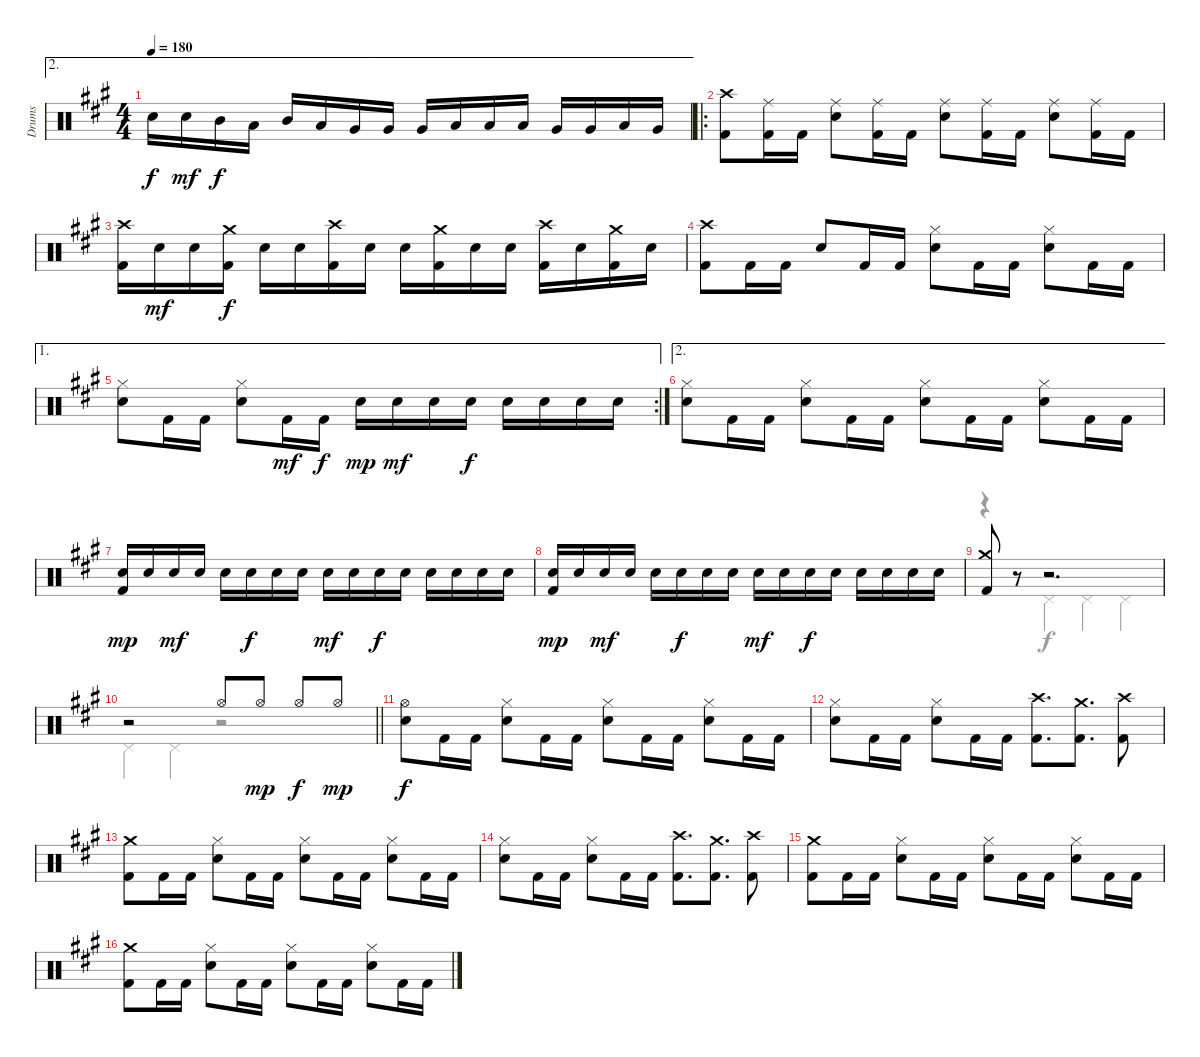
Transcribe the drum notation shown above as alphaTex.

\track ("Drums" "Drums") {instrument percussion}
\staff {score}
\articulation defaults
\voice
\ae 2
\ts (4 4)
\tempo 180
\clef neutral
\ks a "Snare (hit) 2".16{dy f} "Snare (hit) 2".16{dy mf} "Mid Tom (hit)".16{dy f} "Low Tom (hit)".16 "Mid Tom (hit)".16 "Low Tom (hit)".16 "Very Low Tom (hit)".16 "Very Low Tom (hit)".16 "Very Low Tom (hit)".16 "Low Tom (hit)".16 "Low Tom (hit)".16 "Low Tom (hit)".16 "Very Low Tom (hit)".16 "Very Low Tom (hit)".16 "Low Tom (hit)".16 "Very Low Tom (hit)".16
|
\ro
("Crash high (hit)" "Kick (hit) 2").8 ("Ride (middle)" "Kick (hit) 2").16 "Kick (hit) 2".16 ("Ride (middle)" "Snare (hit) 2").8 ("Ride (middle)" "Kick (hit) 2").16 "Kick (hit) 2".16 ("Ride (middle)" "Snare (hit) 2").8 ("Ride (middle)" "Kick (hit) 2").16 "Kick (hit) 2".16 ("Ride (middle)" "Snare (hit) 2").8 ("Ride (middle)" "Kick (hit) 2").16 "Kick (hit) 2".16 |
("Crash high (hit)" "Kick (hit) 2").16 "Snare (hit) 2".16{dy mf} "Snare (hit) 2".16 ("Crash medium (hit)" "Kick (hit) 2").16{dy f} "Snare (hit) 2".16 "Snare (hit) 2".16 ("Crash high (hit)" "Kick (hit) 2").16 "Snare (hit) 2".16 "Snare (hit) 2".16 ("Crash medium (hit)" "Kick (hit) 2").16 "Snare (hit) 2".16 "Snare (hit) 2".16 ("Crash high (hit)" "Kick (hit) 2").16 "Snare (hit) 2".16 ("Crash medium (hit)" "Kick (hit) 2").16 "Snare (hit) 2".16 |
("Crash high (hit)" "Kick (hit) 2").8 "Kick (hit) 2".16 "Kick (hit) 2".16 "Snare (hit) 2".8 "Kick (hit) 2".16 "Kick (hit) 2".16 ("Hi-Hat (closed)" "Snare (hit) 2").8 "Kick (hit) 2".16 "Kick (hit) 2".16 ("Hi-Hat (closed)" "Snare (hit) 2").8 "Kick (hit) 2".16 "Kick (hit) 2".16 |
\ae 1
\rc 2
("Hi-Hat (closed)" "Snare (hit) 2").8 "Kick (hit) 2".16 "Kick (hit) 2".16 ("Hi-Hat (closed)" "Snare (hit) 2").8 "Kick (hit) 2".16{dy mf} "Kick (hit) 2".16{dy f} "Snare (hit) 2".16{dy mp} "Snare (hit) 2".16{dy mf} "Snare (hit) 2".16 "Snare (hit) 2".16{dy f} "Snare (hit) 2".16 "Snare (hit) 2".16 "Snare (hit) 2".16 "Snare (hit) 2".16 |
\ae 2
("Hi-Hat (closed)" "Snare (hit) 2").8 "Kick (hit) 2".16 "Kick (hit) 2".16 ("Hi-Hat (closed)" "Snare (hit) 2").8 "Kick (hit) 2".16 "Kick (hit) 2".16 ("Hi-Hat (closed)" "Snare (hit) 2").8 "Kick (hit) 2".16 "Kick (hit) 2".16 ("Hi-Hat (closed)" "Snare (hit) 2").8 "Kick (hit) 2".16 "Kick (hit) 2".16 |
("Snare (hit) 2" "Kick (hit) 2").16{dy mp} "Snare (hit) 2".16 "Snare (hit) 2".16{dy mf} "Snare (hit) 2".16 "Snare (hit) 2".16 "Snare (hit) 2".16{dy f} "Snare (hit) 2".16 "Snare (hit) 2".16 "Snare (hit) 2".16{dy mf} "Snare (hit) 2".16 "Snare (hit) 2".16{dy f} "Snare (hit) 2".16 "Snare (hit) 2".16 "Snare (hit) 2".16 "Snare (hit) 2".16 "Snare (hit) 2".16 |
("Snare (hit) 2" "Kick (hit) 2").16{dy mp} "Snare (hit) 2".16 "Snare (hit) 2".16{dy mf} "Snare (hit) 2".16 "Snare (hit) 2".16 "Snare (hit) 2".16{dy f} "Snare (hit) 2".16 "Snare (hit) 2".16 "Snare (hit) 2".16{dy mf} "Snare (hit) 2".16 "Snare (hit) 2".16{dy f} "Snare (hit) 2".16 "Snare (hit) 2".16 "Snare (hit) 2".16 "Snare (hit) 2".16 "Snare (hit) 2".16 |
("Crash medium (hit)" "Kick (hit) 2").8 r.8 r.2{d} |
\barLineRight lightlight
r.2 "Hi-Hat (open)".8 "Hi-Hat (open)".8{dy mp} "Hi-Hat (open)".8{dy f} "Hi-Hat (open)".8{dy mp} |
("Hi-Hat (open)" "Snare (hit) 2").8{dy f} "Kick (hit) 2".16 "Kick (hit) 2".16 ("Hi-Hat (closed)" "Snare (hit) 2").8 "Kick (hit) 2".16 "Kick (hit) 2".16 ("Hi-Hat (closed)" "Snare (hit) 2").8 "Kick (hit) 2".16 "Kick (hit) 2".16 ("Hi-Hat (closed)" "Snare (hit) 2").8 "Kick (hit) 2".16 "Kick (hit) 2".16 |
("Hi-Hat (closed)" "Snare (hit) 2").8 "Kick (hit) 2".16 "Kick (hit) 2".16 ("Hi-Hat (closed)" "Snare (hit) 2").8 "Kick (hit) 2".16 "Kick (hit) 2".16 ("Crash high (hit)" "Kick (hit) 2").8{d} ("Crash medium (hit)" "Kick (hit) 2").8{d} ("Crash high (hit)" "Kick (hit) 2").8 |
("Crash medium (hit)" "Kick (hit) 2").8 "Kick (hit) 2".16 "Kick (hit) 2".16 ("Hi-Hat (closed)" "Snare (hit) 2").8 "Kick (hit) 2".16 "Kick (hit) 2".16 ("Hi-Hat (closed)" "Snare (hit) 2").8 "Kick (hit) 2".16 "Kick (hit) 2".16 ("Hi-Hat (closed)" "Snare (hit) 2").8 "Kick (hit) 2".16 "Kick (hit) 2".16 |
("Hi-Hat (closed)" "Snare (hit) 2").8 "Kick (hit) 2".16 "Kick (hit) 2".16 ("Hi-Hat (closed)" "Snare (hit) 2").8 "Kick (hit) 2".16 "Kick (hit) 2".16 ("Crash high (hit)" "Kick (hit) 2").8{d} ("Crash medium (hit)" "Kick (hit) 2").8{d} ("Crash high (hit)" "Kick (hit) 2").8 |
("Crash medium (hit)" "Kick (hit) 2").8 "Kick (hit) 2".16 "Kick (hit) 2".16 ("Hi-Hat (closed)" "Snare (hit) 2").8 "Kick (hit) 2".16 "Kick (hit) 2".16 ("Hi-Hat (closed)" "Snare (hit) 2").8 "Kick (hit) 2".16 "Kick (hit) 2".16 ("Hi-Hat (closed)" "Snare (hit) 2").8 "Kick (hit) 2".16 "Kick (hit) 2".16 |
("Crash medium (hit)" "Kick (hit) 2").8 "Kick (hit) 2".16 "Kick (hit) 2".16 ("Hi-Hat (closed)" "Snare (hit) 2").8 "Kick (hit) 2".16 "Kick (hit) 2".16 ("Hi-Hat (closed)" "Snare (hit) 2").8 "Kick (hit) 2".16 "Kick (hit) 2".16 ("Hi-Hat (closed)" "Snare (hit) 2").8 "Kick (hit) 2".16 "Kick (hit) 2".16
\voice
\clef neutral
\ottava regular
\simile none
\ks a
|
|
|
|
|
|
|
|
r.4 "Pedal Hi-Hat (hit)".4{dy f} "Pedal Hi-Hat (hit)".4 "Pedal Hi-Hat (hit)".4 |
\barLineRight lightlight "Pedal Hi-Hat (hit)".4 "Pedal Hi-Hat (hit)".4
r.2 |
|
|
|
|
|
